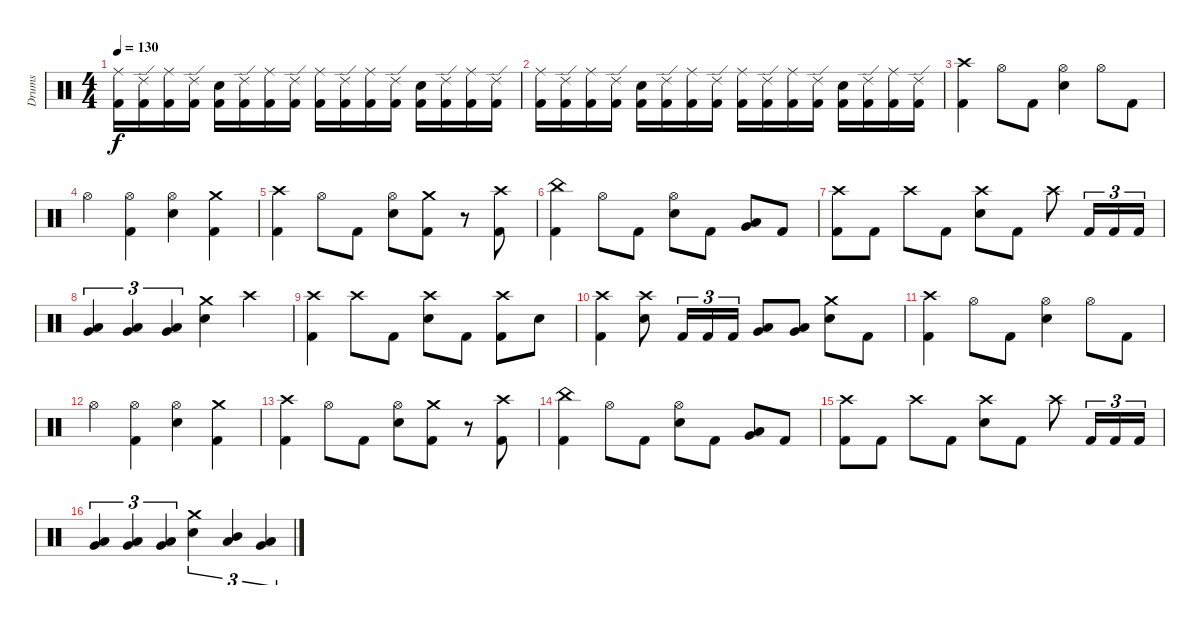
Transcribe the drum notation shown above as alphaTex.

\track ("Drums" "Drums") {instrument percussion}
\staff {score}
\articulation defaults
\ts (4 4)
\tempo 130
\clef neutral
\ks c
("Ride (middle)" "Kick (hit) 2").16{dy f} ("Ride (edge) 2" "Kick (hit) 2").16 ("Ride (middle)" "Kick (hit) 2").16 ("Ride (edge) 2" "Kick (hit) 2").16 ("Electric Snare (hit)" "Kick (hit) 2").16 ("Ride (edge) 2" "Kick (hit) 2").16 ("Ride (middle)" "Kick (hit) 2").16 ("Ride (edge) 2" "Kick (hit) 2").16 ("Ride (middle)" "Kick (hit) 2").16 ("Ride (edge) 2" "Kick (hit) 2").16 ("Ride (middle)" "Kick (hit) 2").16 ("Ride (edge) 2" "Kick (hit) 2").16 ("Electric Snare (hit)" "Kick (hit) 2").16 ("Ride (edge) 2" "Kick (hit) 2").16 ("Ride (middle)" "Kick (hit) 2").16 ("Ride (edge) 2" "Kick (hit) 2").16 |
("Ride (middle)" "Kick (hit) 2").16 ("Ride (edge) 2" "Kick (hit) 2").16 ("Ride (middle)" "Kick (hit) 2").16 ("Ride (edge) 2" "Kick (hit) 2").16 ("Electric Snare (hit)" "Kick (hit) 2").16 ("Ride (edge) 2" "Kick (hit) 2").16 ("Ride (middle)" "Kick (hit) 2").16 ("Ride (edge) 2" "Kick (hit) 2").16 ("Ride (middle)" "Kick (hit) 2").16 ("Ride (edge) 2" "Kick (hit) 2").16 ("Ride (middle)" "Kick (hit) 2").16 ("Ride (edge) 2" "Kick (hit) 2").16 ("Electric Snare (hit)" "Kick (hit) 2").16 ("Ride (edge) 2" "Kick (hit) 2").16 ("Ride (middle)" "Kick (hit) 2").16 ("Ride (edge) 2" "Kick (hit) 2").16 |
("Crash high (hit)" "Kick (hit) 2").4 "Hi-Hat (open)".8 "Kick (hit) 2".8 ("Hi-Hat (open)" "Electric Snare (hit)").4 "Hi-Hat (open)".8 "Kick (hit) 2".8 |
"Hi-Hat (open)".4 ("Hi-Hat (open)" "Kick (hit) 2").4 ("Hi-Hat (open)" "Electric Snare (hit)").4 ("Crash medium (hit)" "Kick (hit) 2").4 |
("Crash high (hit)" "Kick (hit) 2").4 "Hi-Hat (open)".8 "Kick (hit) 2".8 ("Hi-Hat (open)" "Electric Snare (hit)").8 ("Crash medium (hit)" "Kick (hit) 2").8 r.8 ("Crash high (hit)" "Kick (hit) 2").8 |
("China (hit)" "Kick (hit) 2").4 "Hi-Hat (open)".8 "Kick (hit) 2".8 ("Hi-Hat (open)" "Electric Snare (hit)").8 "Kick (hit) 2".8 ("Low Tom (hit)" "Very Low Tom (hit)").8 "Kick (hit) 2".8 |
("Crash high (hit)" "Kick (hit) 2").8 "Kick (hit) 2".8 "Crash high (hit)".8 "Kick (hit) 2".8 ("Crash high (hit)" "Electric Snare (hit)").8 "Kick (hit) 2".8 "Crash high (hit)".8 "Kick (hit) 2".16{tu (3 2)} "Kick (hit) 2".16{tu (3 2)} "Kick (hit) 2".16{tu (3 2)} |
("Low Tom (hit)" "Very Low Tom (hit)").4{tu (3 2)} ("Low Tom (hit)" "Very Low Tom (hit)").4{tu (3 2)} ("Low Tom (hit)" "Very Low Tom (hit)").4{tu (3 2)} ("Crash medium (hit)" "Electric Snare (hit)").4 "Crash high (hit)".4 |
("Crash high (hit)" "Kick (hit) 2").4 "Crash high (hit)".8 "Kick (hit) 2".8 ("Crash high (hit)" "Electric Snare (hit)").8 "Kick (hit) 2".8 ("Crash high (hit)" "Kick (hit) 2").8 "Electric Snare (hit)".8 |
("Crash high (hit)" "Kick (hit) 2").4 ("Crash high (hit)" "Electric Snare (hit)").8 "Kick (hit) 2".16{tu (3 2)} "Kick (hit) 2".16{tu (3 2)} "Kick (hit) 2".16{tu (3 2)} ("Low Tom (hit)" "Very Low Tom (hit)").8 ("Low Tom (hit)" "Very Low Tom (hit)").8 ("Crash medium (hit)" "Electric Snare (hit)").8 "Kick (hit) 2".8 |
("Crash high (hit)" "Kick (hit) 2").4 "Hi-Hat (open)".8 "Kick (hit) 2".8 ("Hi-Hat (open)" "Electric Snare (hit)").4 "Hi-Hat (open)".8 "Kick (hit) 2".8 |
"Hi-Hat (open)".4 ("Hi-Hat (open)" "Kick (hit) 2").4 ("Hi-Hat (open)" "Electric Snare (hit)").4 ("Crash medium (hit)" "Kick (hit) 2").4 |
("Crash high (hit)" "Kick (hit) 2").4 "Hi-Hat (open)".8 "Kick (hit) 2".8 ("Hi-Hat (open)" "Electric Snare (hit)").8 ("Crash medium (hit)" "Kick (hit) 2").8 r.8 ("Crash high (hit)" "Kick (hit) 2").8 |
("China (hit)" "Kick (hit) 2").4 "Hi-Hat (open)".8 "Kick (hit) 2".8 ("Hi-Hat (open)" "Electric Snare (hit)").8 "Kick (hit) 2".8 ("Low Tom (hit)" "Very Low Tom (hit)").8 "Kick (hit) 2".8 |
("Crash high (hit)" "Kick (hit) 2").8 "Kick (hit) 2".8 "Crash high (hit)".8 "Kick (hit) 2".8 ("Crash high (hit)" "Electric Snare (hit)").8 "Kick (hit) 2".8 "Crash high (hit)".8 "Kick (hit) 2".16{tu (3 2)} "Kick (hit) 2".16{tu (3 2)} "Kick (hit) 2".16{tu (3 2)} |
("Low Tom (hit)" "Very Low Tom (hit)").4{tu (3 2)} ("Low Tom (hit)" "Very Low Tom (hit)").4{tu (3 2)} ("Low Tom (hit)" "Very Low Tom (hit)").4{tu (3 2)} ("Crash medium (hit)" "Electric Snare (hit)").4{tu (3 2)} ("Mid Tom (hit)" "Low Tom (hit)").4{tu (3 2)} ("Low Tom (hit)" "Very Low Tom (hit)").4{tu (3 2)}
